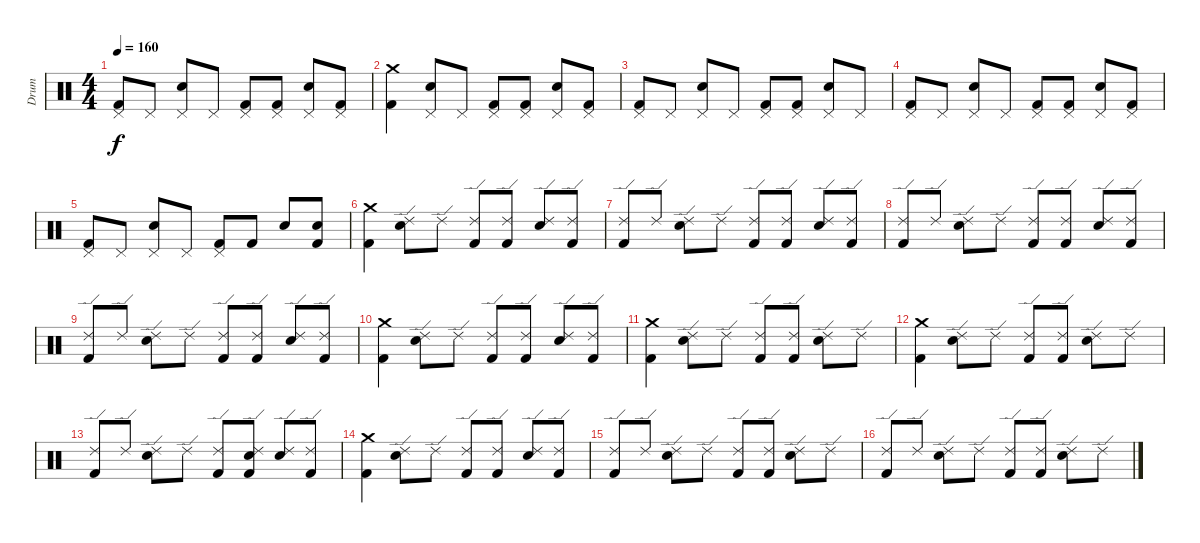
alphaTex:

\track ("Drum" "Drum") {instrument percussion}
\staff {score}
\articulation defaults
\ts (4 4)
\tempo 160
\clef neutral
\ks c
("Pedal Hi-Hat (hit)" "Kick (hit) 2").8{dy f} "Pedal Hi-Hat (hit)".8 ("Pedal Hi-Hat (hit)" "Electric Snare (hit)").8 "Pedal Hi-Hat (hit)".8 ("Pedal Hi-Hat (hit)" "Kick (hit) 2").8 ("Pedal Hi-Hat (hit)" "Kick (hit) 2").8 ("Pedal Hi-Hat (hit)" "Electric Snare (hit)").8 ("Pedal Hi-Hat (hit)" "Kick (hit) 2").8 |
("Crash medium (hit)" "Kick (hit) 2").4 ("Pedal Hi-Hat (hit)" "Electric Snare (hit)").8 "Pedal Hi-Hat (hit)".8 ("Pedal Hi-Hat (hit)" "Kick (hit) 2").8 ("Pedal Hi-Hat (hit)" "Kick (hit) 2").8 ("Pedal Hi-Hat (hit)" "Electric Snare (hit)").8 ("Pedal Hi-Hat (hit)" "Kick (hit) 2").8 |
("Pedal Hi-Hat (hit)" "Kick (hit) 2").8 "Pedal Hi-Hat (hit)".8 ("Pedal Hi-Hat (hit)" "Electric Snare (hit)").8 "Pedal Hi-Hat (hit)".8 ("Pedal Hi-Hat (hit)" "Kick (hit) 2").8 ("Pedal Hi-Hat (hit)" "Kick (hit) 2").8 ("Pedal Hi-Hat (hit)" "Electric Snare (hit)").8 "Pedal Hi-Hat (hit)".8 |
("Pedal Hi-Hat (hit)" "Kick (hit) 2").8 "Pedal Hi-Hat (hit)".8 ("Pedal Hi-Hat (hit)" "Electric Snare (hit)").8 "Pedal Hi-Hat (hit)".8 ("Pedal Hi-Hat (hit)" "Kick (hit) 2").8 ("Pedal Hi-Hat (hit)" "Kick (hit) 2").8 ("Pedal Hi-Hat (hit)" "Electric Snare (hit)").8 ("Pedal Hi-Hat (hit)" "Kick (hit) 2").8 |
("Pedal Hi-Hat (hit)" "Kick (hit) 2").8 "Pedal Hi-Hat (hit)".8 ("Pedal Hi-Hat (hit)" "Electric Snare (hit)").8 "Pedal Hi-Hat (hit)".8 ("Pedal Hi-Hat (hit)" "Kick (hit) 2").8 "Kick (hit) 2".8 "Snare (hit) 2".8 ("Electric Snare (hit)" "Kick (hit) 2").8 |
("Crash medium (hit)" "Kick (hit) 2").4 ("Ride (edge) 2" "Electric Snare (hit)").8 "Ride (edge) 2".8 ("Ride (edge) 2" "Kick (hit) 2").8 ("Ride (edge) 2" "Kick (hit) 2").8 ("Ride (edge) 2" "Electric Snare (hit)").8 ("Ride (edge) 2" "Kick (hit) 2").8 |
("Ride (edge) 2" "Kick (hit) 2").8 "Ride (edge) 2".8 ("Ride (edge) 2" "Electric Snare (hit)").8 "Ride (edge) 2".8 ("Ride (edge) 2" "Kick (hit) 2").8 ("Ride (edge) 2" "Kick (hit) 2").8 ("Ride (edge) 2" "Electric Snare (hit)").8 ("Ride (edge) 2" "Kick (hit) 2").8 |
("Ride (edge) 2" "Kick (hit) 2").8 "Ride (edge) 2".8 ("Ride (edge) 2" "Electric Snare (hit)").8 "Ride (edge) 2".8 ("Ride (edge) 2" "Kick (hit) 2").8 ("Ride (edge) 2" "Kick (hit) 2").8 ("Ride (edge) 2" "Electric Snare (hit)").8 ("Ride (edge) 2" "Kick (hit) 2").8 |
("Ride (edge) 2" "Kick (hit) 2").8 "Ride (edge) 2".8 ("Ride (edge) 2" "Electric Snare (hit)").8 "Ride (edge) 2".8 ("Ride (edge) 2" "Kick (hit) 2").8 ("Ride (edge) 2" "Kick (hit) 2").8 ("Ride (edge) 2" "Electric Snare (hit)").8 ("Ride (edge) 2" "Kick (hit) 2").8 |
("Crash medium (hit)" "Kick (hit) 2").4 ("Ride (edge) 2" "Electric Snare (hit)").8 "Ride (edge) 2".8 ("Ride (edge) 2" "Kick (hit) 2").8 ("Ride (edge) 2" "Kick (hit) 2").8 ("Ride (edge) 2" "Electric Snare (hit)").8 ("Ride (edge) 2" "Kick (hit) 2").8 |
("Crash medium (hit)" "Kick (hit) 2").4 ("Ride (edge) 2" "Electric Snare (hit)").8 "Ride (edge) 2".8 ("Ride (edge) 2" "Kick (hit) 2").8 ("Ride (edge) 2" "Kick (hit) 2").8 ("Ride (edge) 2" "Electric Snare (hit)").8 "Ride (edge) 2".8 |
("Crash medium (hit)" "Kick (hit) 2").4 ("Ride (edge) 2" "Electric Snare (hit)").8 "Ride (edge) 2".8 ("Ride (edge) 2" "Kick (hit) 2").8 ("Ride (edge) 2" "Kick (hit) 2").8 ("Ride (edge) 2" "Electric Snare (hit)").8 "Ride (edge) 2".8 |
("Ride (edge) 2" "Kick (hit) 2").8 "Ride (edge) 2".8 ("Ride (edge) 2" "Electric Snare (hit)").8 "Ride (edge) 2".8 ("Ride (edge) 2" "Kick (hit) 2").8 ("Ride (edge) 2" "Electric Snare (hit)" "Kick (hit) 2").8 ("Ride (edge) 2" "Electric Snare (hit)").8 ("Ride (edge) 2" "Kick (hit) 2").8 |
("Crash medium (hit)" "Kick (hit) 2").4 ("Ride (edge) 2" "Electric Snare (hit)").8 "Ride (edge) 2".8 ("Ride (edge) 2" "Kick (hit) 2").8 ("Ride (edge) 2" "Kick (hit) 2").8 ("Ride (edge) 2" "Electric Snare (hit)").8 ("Ride (edge) 2" "Kick (hit) 2").8 |
("Ride (edge) 2" "Kick (hit) 2").8 "Ride (edge) 2".8 ("Ride (edge) 2" "Electric Snare (hit)").8 "Ride (edge) 2".8 ("Ride (edge) 2" "Kick (hit) 2").8 ("Ride (edge) 2" "Kick (hit) 2").8 ("Ride (edge) 2" "Electric Snare (hit)").8 "Ride (edge) 2".8 |
("Ride (edge) 2" "Kick (hit) 2").8 "Ride (edge) 2".8 ("Ride (edge) 2" "Electric Snare (hit)").8 "Ride (edge) 2".8 ("Ride (edge) 2" "Kick (hit) 2").8 ("Ride (edge) 2" "Kick (hit) 2").8 ("Ride (edge) 2" "Electric Snare (hit)").8 "Ride (edge) 2".8
